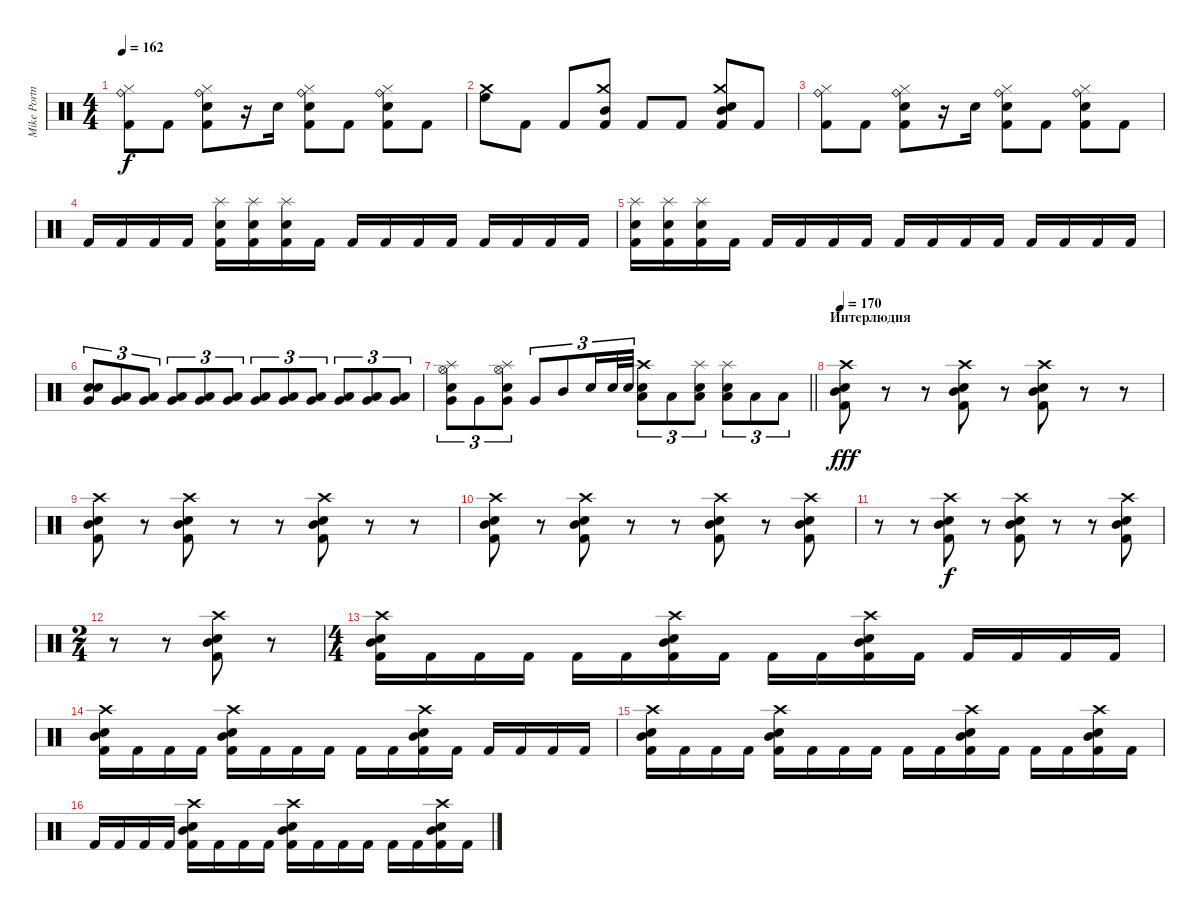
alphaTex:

\track ("Mike Portnoy" "Mike Portn") {instrument percussion}
\staff {score}
\articulation defaults
\ts (4 4)
\tempo 162
\clef neutral
\ks c
("Ride (bell)" "Hi-Hat (closed)" "Kick (hit) 2").8{dy f} "Kick (hit) 2".8 ("Ride (bell)" "Hi-Hat (closed)" "Snare (hit) 2" "Kick (hit) 2").8 r.16 "Electric Snare (hit)".16 ("Ride (bell)" "Hi-Hat (closed)" "Snare (hit) 2" "Kick (hit) 2").8 "Kick (hit) 2".8 ("Ride (bell)" "Hi-Hat (closed)" "Snare (hit) 2" "Kick (hit) 2").8 "Kick (hit) 2".8 |
("Crash medium (hit)" "High Floor Tom (hit)").8 "Kick (hit) 2".8 "Kick (hit) 2".8 ("Crash medium (hit)" "Mid Tom (hit)" "Kick (hit) 2").8 "Kick (hit) 2".8 "Kick (hit) 2".8 ("Crash medium (hit)" "Electric Snare (hit)" "Mid Tom (hit)" "Kick (hit) 2").8 "Kick (hit) 2".8 |
("Ride (bell)" "Hi-Hat (closed)" "Kick (hit) 2").8 "Kick (hit) 2".8 ("Ride (bell)" "Hi-Hat (closed)" "Snare (hit) 2" "Kick (hit) 2").8 r.16 "Electric Snare (hit)".16 ("Ride (bell)" "Hi-Hat (closed)" "Snare (hit) 2" "Kick (hit) 2").8 "Kick (hit) 2".8 ("Ride (bell)" "Hi-Hat (closed)" "Snare (hit) 2" "Kick (hit) 2").8 "Kick (hit) 2".8 |
"Kick (hit) 2".16 "Kick (hit) 2".16 "Kick (hit) 2".16 "Kick (hit) 2".16 ("Splash (hit)" "Electric Snare (hit)" "Kick (hit) 2").16 ("Splash (hit)" "Electric Snare (hit)" "Kick (hit) 2").16 ("Splash (hit)" "Electric Snare (hit)" "Kick (hit) 2").16 "Kick (hit) 2".16 "Kick (hit) 2".16 "Kick (hit) 2".16 "Kick (hit) 2".16 "Kick (hit) 2".16 "Kick (hit) 2".16 "Kick (hit) 2".16 "Kick (hit) 2".16 "Kick (hit) 2".16 |
("Splash (hit)" "Electric Snare (hit)" "Kick (hit) 2").16 ("Splash (hit)" "Electric Snare (hit)" "Kick (hit) 2").16 ("Splash (hit)" "Electric Snare (hit)" "Kick (hit) 2").16 "Kick (hit) 2".16 "Kick (hit) 2".16 "Kick (hit) 2".16 "Kick (hit) 2".16 "Kick (hit) 2".16 "Kick (hit) 2".16 "Kick (hit) 2".16 "Kick (hit) 2".16 "Kick (hit) 2".16 "Kick (hit) 2".16 "Kick (hit) 2".16 "Kick (hit) 2".16 "Kick (hit) 2".16 |
("Snare (hit) 2" "Electric Snare (hit)" "Very Low Tom (hit)").8{tu (3 2)} ("Low Tom (hit)" "Very Low Tom (hit)").8{tu (3 2)} ("Low Tom (hit)" "Very Low Tom (hit)").8{tu (3 2)} ("Low Tom (hit)" "Very Low Tom (hit)").8{tu (3 2)} ("Low Tom (hit)" "Very Low Tom (hit)").8{tu (3 2)} ("Low Tom (hit)" "Very Low Tom (hit)").8{tu (3 2)} ("Low Tom (hit)" "Very Low Tom (hit)").8{tu (3 2)} ("Low Tom (hit)" "Very Low Tom (hit)").8{tu (3 2)} ("Low Tom (hit)" "Very Low Tom (hit)").8{tu (3 2)} ("Low Tom (hit)" "Very Low Tom (hit)").8{tu (3 2)} ("Low Tom (hit)" "Very Low Tom (hit)").8{tu (3 2)} ("Low Tom (hit)" "Very Low Tom (hit)").8{tu (3 2)} |
\barLineRight lightlight
("Hi-Hat (open)" "Splash (hit)" "Electric Snare (hit)" "Very Low Tom (hit)").8{tu (3 2)} "Very Low Tom (hit)".8{tu (3 2)} ("Hi-Hat (open)" "Splash (hit)" "Electric Snare (hit)" "Very Low Tom (hit)").8{tu (3 2)} "Very Low Tom (hit)".8{tu (3 2)} "Mid Tom (hit)".8{tu (3 2)} "Electric Snare (hit)".16{tu (3 2)} "Electric Snare (hit)".32{tu (3 2)} "Electric Snare (hit)".32{tu (3 2)} ("Crash high (hit)" "Electric Snare (hit)" "Low Tom (hit)").8{tu (3 2)} "Low Tom (hit)".8{tu (3 2)} ("Splash (hit)" "Electric Snare (hit)" "Low Tom (hit)").8{tu (3 2)} ("Splash (hit)" "Electric Snare (hit)" "Low Tom (hit)").8{tu (3 2)} "Low Tom (hit)".8{tu (3 2)} "Low Tom (hit)".8{tu (3 2)} |
\section ("" "Интерлюдия")
\tempo 170
("Crash high (hit)" "Electric Snare (hit)" "Mid Tom (hit)" "Kick (hit) 2").8{dy fff} r.8 r.8 ("Crash high (hit)" "Electric Snare (hit)" "Mid Tom (hit)" "Kick (hit) 2").8 r.8 ("Crash high (hit)" "Electric Snare (hit)" "Mid Tom (hit)" "Kick (hit) 2").8 r.8 r.8 |
("Crash high (hit)" "Electric Snare (hit)" "Mid Tom (hit)" "Kick (hit) 2").8 r.8 ("Crash high (hit)" "Electric Snare (hit)" "Mid Tom (hit)" "Kick (hit) 2").8 r.8 r.8 ("Crash high (hit)" "Electric Snare (hit)" "Mid Tom (hit)" "Kick (hit) 2").8 r.8 r.8 |
("Crash high (hit)" "Electric Snare (hit)" "Mid Tom (hit)" "Kick (hit) 2").8 r.8 ("Crash high (hit)" "Electric Snare (hit)" "Mid Tom (hit)" "Kick (hit) 2").8 r.8 r.8 ("Crash high (hit)" "Electric Snare (hit)" "Mid Tom (hit)" "Kick (hit) 2").8 r.8 ("Crash high (hit)" "Electric Snare (hit)" "Mid Tom (hit)" "Kick (hit) 2").8 |
r.8 r.8 ("Crash high (hit)" "Electric Snare (hit)" "Mid Tom (hit)" "Kick (hit) 2").8{dy f} r.8 ("Crash high (hit)" "Electric Snare (hit)" "Mid Tom (hit)" "Kick (hit) 2").8 r.8 r.8 ("Crash high (hit)" "Electric Snare (hit)" "Mid Tom (hit)" "Kick (hit) 2").8 |
\ts (2 4)
r.8 r.8 ("Crash high (hit)" "Electric Snare (hit)" "Mid Tom (hit)" "Kick (hit) 2").8 r.8 |
\ts (4 4)
("Crash high (hit)" "Electric Snare (hit)" "Mid Tom (hit)" "Kick (hit) 2").16 "Kick (hit) 2".16 "Kick (hit) 2".16 "Kick (hit) 2".16 "Kick (hit) 2".16 "Kick (hit) 2".16 ("Crash high (hit)" "Electric Snare (hit)" "Mid Tom (hit)" "Kick (hit) 2").16 "Kick (hit) 2".16 "Kick (hit) 2".16 "Kick (hit) 2".16 ("Crash high (hit)" "Electric Snare (hit)" "Mid Tom (hit)" "Kick (hit) 2").16 "Kick (hit) 2".16 "Kick (hit) 2".16 "Kick (hit) 2".16 "Kick (hit) 2".16 "Kick (hit) 2".16 |
("Crash high (hit)" "Electric Snare (hit)" "Mid Tom (hit)" "Kick (hit) 2").16 "Kick (hit) 2".16 "Kick (hit) 2".16 "Kick (hit) 2".16 ("Crash high (hit)" "Electric Snare (hit)" "Mid Tom (hit)" "Kick (hit) 2").16 "Kick (hit) 2".16 "Kick (hit) 2".16 "Kick (hit) 2".16 "Kick (hit) 2".16 "Kick (hit) 2".16 ("Crash high (hit)" "Electric Snare (hit)" "Mid Tom (hit)" "Kick (hit) 2").16 "Kick (hit) 2".16 "Kick (hit) 2".16 "Kick (hit) 2".16 "Kick (hit) 2".16 "Kick (hit) 2".16 |
("Crash high (hit)" "Electric Snare (hit)" "Mid Tom (hit)" "Kick (hit) 2").16 "Kick (hit) 2".16 "Kick (hit) 2".16 "Kick (hit) 2".16 ("Crash high (hit)" "Electric Snare (hit)" "Mid Tom (hit)" "Kick (hit) 2").16 "Kick (hit) 2".16 "Kick (hit) 2".16 "Kick (hit) 2".16 "Kick (hit) 2".16 "Kick (hit) 2".16 ("Crash high (hit)" "Electric Snare (hit)" "Mid Tom (hit)" "Kick (hit) 2").16 "Kick (hit) 2".16 "Kick (hit) 2".16 "Kick (hit) 2".16 ("Crash high (hit)" "Electric Snare (hit)" "Mid Tom (hit)" "Kick (hit) 2").16 "Kick (hit) 2".16 |
"Kick (hit) 2".16 "Kick (hit) 2".16 "Kick (hit) 2".16 "Kick (hit) 2".16 ("Crash high (hit)" "Electric Snare (hit)" "Mid Tom (hit)" "Kick (hit) 2").16 "Kick (hit) 2".16 "Kick (hit) 2".16 "Kick (hit) 2".16 ("Crash high (hit)" "Electric Snare (hit)" "Mid Tom (hit)" "Kick (hit) 2").16 "Kick (hit) 2".16 "Kick (hit) 2".16 "Kick (hit) 2".16 "Kick (hit) 2".16 "Kick (hit) 2".16 ("Crash high (hit)" "Electric Snare (hit)" "Mid Tom (hit)" "Kick (hit) 2").16 "Kick (hit) 2".16
